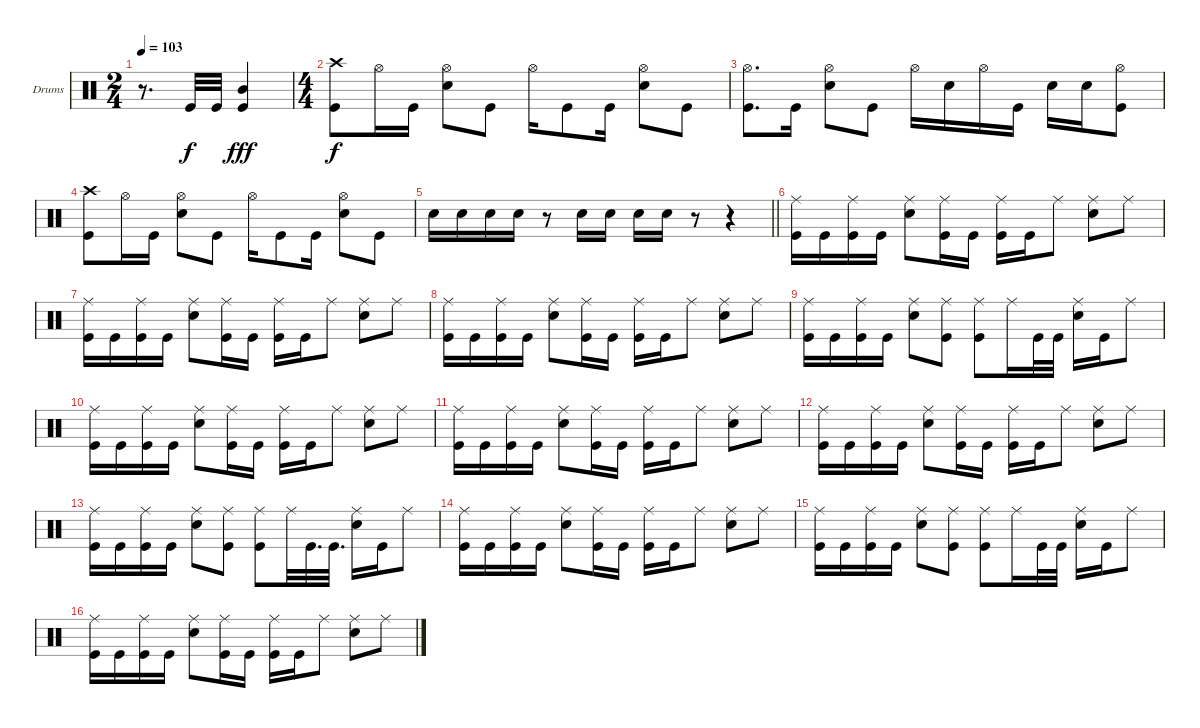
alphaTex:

\bracketExtendMode groupsimilarinstruments
\firstSystemTrackNameOrientation horizontal
\otherSystemsTrackNameOrientation horizontal
\track ("Drums" "Drums") {instrument percussion}
\staff {score}
\articulation defaults
\ts (2 4)
\tempo 103
\clef neutral
\ks c
r.8{d dy f} "Kick (hit)".32 "Kick (hit)".32 ("Kick (hit)" "Mid Tom (hit)").4{dy fff} |
\ts (4 4)
("Kick (hit)" "Crash high (hit)").8{dy f} "Hi-Hat (open)".16 "Kick (hit)".16 ("Snare (hit) 2" "Hi-Hat (open)").8 "Kick (hit)".8 "Hi-Hat (open)".16 "Kick (hit)".8 "Kick (hit)".16 ("Snare (hit) 2" "Hi-Hat (open)").8 "Kick (hit)".8 |
("Kick (hit)" "Hi-Hat (open)").8{d} "Kick (hit)".16 ("Snare (hit) 2" "Hi-Hat (open)").8 "Kick (hit)".8 "Hi-Hat (open)".16 "Snare (hit) 2".16 "Hi-Hat (open)".16 "Kick (hit)".16 "Snare (hit) 2".16 "Snare (hit) 2".16 ("Kick (hit)" "Hi-Hat (open)").8 |
("Kick (hit)" "Crash high (hit)").8 "Hi-Hat (open)".16 "Kick (hit)".16 ("Snare (hit) 2" "Hi-Hat (open)").8 "Kick (hit)".8 "Hi-Hat (open)".16 "Kick (hit)".8 "Kick (hit)".16 ("Snare (hit) 2" "Hi-Hat (open)").8 "Kick (hit)".8 |
\barLineRight lightlight "Snare (hit) 2".16 "Snare (hit) 2".16 "Snare (hit) 2".16 "Snare (hit) 2".16
r.8 "Snare (hit) 2".16 "Snare (hit) 2".16 "Snare (hit) 2".16 "Snare (hit) 2".16 r.8 r.4 |
("Kick (hit)" "Ride (middle)").16 "Kick (hit)".16 ("Kick (hit)" "Ride (middle)").16 "Kick (hit)".16 ("Snare (hit) 2" "Ride (middle)").8 ("Kick (hit)" "Ride (middle)").16 "Kick (hit)".16 ("Kick (hit)" "Ride (middle)").16 "Kick (hit)".16 "Ride (middle)".8 ("Snare (hit) 2" "Ride (middle)").8 "Ride (middle)".8 |
("Kick (hit)" "Ride (middle)").16 "Kick (hit)".16 ("Kick (hit)" "Ride (middle)").16 "Kick (hit)".16 ("Snare (hit) 2" "Ride (middle)").8 ("Kick (hit)" "Ride (middle)").16 "Kick (hit)".16 ("Kick (hit)" "Ride (middle)").16 "Kick (hit)".16 "Ride (middle)".8 ("Snare (hit) 2" "Ride (middle)").8 "Ride (middle)".8 |
("Kick (hit)" "Ride (middle)").16 "Kick (hit)".16 ("Kick (hit)" "Ride (middle)").16 "Kick (hit)".16 ("Snare (hit) 2" "Ride (middle)").8 ("Kick (hit)" "Ride (middle)").16 "Kick (hit)".16 ("Kick (hit)" "Ride (middle)").16 "Kick (hit)".16 "Ride (middle)".8 ("Snare (hit) 2" "Ride (middle)").8 "Ride (middle)".8 |
("Kick (hit)" "Ride (middle)").16 "Kick (hit)".16 ("Kick (hit)" "Ride (middle)").16 "Kick (hit)".16 ("Snare (hit) 2" "Ride (middle)").8 ("Kick (hit)" "Ride (middle)").8 ("Kick (hit)" "Ride (middle)").8 "Ride (middle)".16 "Kick (hit)".32 "Kick (hit)".32 ("Snare (hit) 2" "Ride (middle)").16 "Kick (hit)".16 "Ride (middle)".8 |
("Kick (hit)" "Ride (middle)").16 "Kick (hit)".16 ("Kick (hit)" "Ride (middle)").16 "Kick (hit)".16 ("Snare (hit) 2" "Ride (middle)").8 ("Kick (hit)" "Ride (middle)").16 "Kick (hit)".16 ("Kick (hit)" "Ride (middle)").16 "Kick (hit)".16 "Ride (middle)".8 ("Snare (hit) 2" "Ride (middle)").8 "Ride (middle)".8 |
("Kick (hit)" "Ride (middle)").16 "Kick (hit)".16 ("Kick (hit)" "Ride (middle)").16 "Kick (hit)".16 ("Snare (hit) 2" "Ride (middle)").8 ("Kick (hit)" "Ride (middle)").16 "Kick (hit)".16 ("Kick (hit)" "Ride (middle)").16 "Kick (hit)".16 "Ride (middle)".8 ("Snare (hit) 2" "Ride (middle)").8 "Ride (middle)".8 |
("Kick (hit)" "Ride (middle)").16 "Kick (hit)".16 ("Kick (hit)" "Ride (middle)").16 "Kick (hit)".16 ("Snare (hit) 2" "Ride (middle)").8 ("Kick (hit)" "Ride (middle)").16 "Kick (hit)".16 ("Kick (hit)" "Ride (middle)").16 "Kick (hit)".16 "Ride (middle)".8 ("Snare (hit) 2" "Ride (middle)").8 "Ride (middle)".8 |
("Kick (hit)" "Ride (middle)").16 "Kick (hit)".16 ("Kick (hit)" "Ride (middle)").16 "Kick (hit)".16 ("Snare (hit) 2" "Ride (middle)").8 ("Kick (hit)" "Ride (middle)").8 ("Kick (hit)" "Ride (middle)").8 "Ride (middle)".32 "Kick (hit)".32{d} "Kick (hit)".32{d} ("Snare (hit) 2" "Ride (middle)").16 "Kick (hit)".16 "Ride (middle)".8 |
("Kick (hit)" "Ride (middle)").16 "Kick (hit)".16 ("Kick (hit)" "Ride (middle)").16 "Kick (hit)".16 ("Snare (hit) 2" "Ride (middle)").8 ("Kick (hit)" "Ride (middle)").16 "Kick (hit)".16 ("Kick (hit)" "Ride (middle)").16 "Kick (hit)".16 "Ride (middle)".8 ("Snare (hit) 2" "Ride (middle)").8 "Ride (middle)".8 |
("Kick (hit)" "Ride (middle)").16 "Kick (hit)".16 ("Kick (hit)" "Ride (middle)").16 "Kick (hit)".16 ("Snare (hit) 2" "Ride (middle)").8 ("Kick (hit)" "Ride (middle)").8 ("Kick (hit)" "Ride (middle)").8 "Ride (middle)".16 "Kick (hit)".32 "Kick (hit)".32 ("Snare (hit) 2" "Ride (middle)").16 "Kick (hit)".16 "Ride (middle)".8 |
("Kick (hit)" "Ride (middle)").16 "Kick (hit)".16 ("Kick (hit)" "Ride (middle)").16 "Kick (hit)".16 ("Snare (hit) 2" "Ride (middle)").8 ("Kick (hit)" "Ride (middle)").16 "Kick (hit)".16 ("Kick (hit)" "Ride (middle)").16 "Kick (hit)".16 "Ride (middle)".8 ("Snare (hit) 2" "Ride (middle)").8 "Ride (middle)".8
